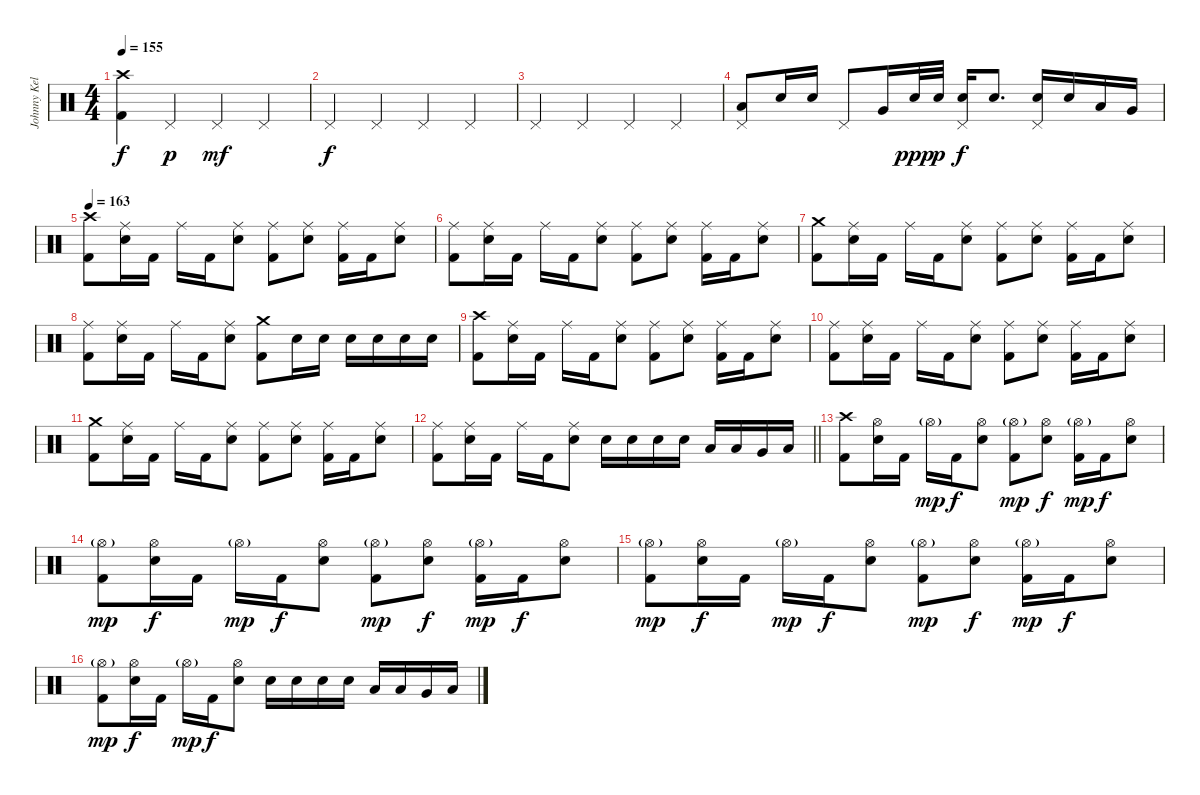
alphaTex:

\track ("Johnny Kelly" "Johnny Kel") {instrument percussion}
\staff {score}
\articulation defaults
\ts (4 4)
\section ("" "")
\tempo 155
\clef neutral
\ks c
("Crash high (hit)" "Kick (hit) 2").4{dy f} "Pedal Hi-Hat (hit)".4{dy p} "Pedal Hi-Hat (hit)".4{dy mf} "Pedal Hi-Hat (hit)".4 |
"Pedal Hi-Hat (hit)".4{dy f} "Pedal Hi-Hat (hit)".4 "Pedal Hi-Hat (hit)".4 "Pedal Hi-Hat (hit)".4 |
"Pedal Hi-Hat (hit)".4 "Pedal Hi-Hat (hit)".4 "Pedal Hi-Hat (hit)".4 "Pedal Hi-Hat (hit)".4 |
("Pedal Hi-Hat (hit)" "Low Tom (hit)").8 "Electric Snare (hit)".16 "Electric Snare (hit)".16 "Pedal Hi-Hat (hit)".8 "Very Low Tom (hit)".16 "Electric Snare (hit)".32{dy ppp} "Electric Snare (hit)".32{dy p} ("Pedal Hi-Hat (hit)" "Electric Snare (hit)").16{dy f} "Electric Snare (hit)".8{d} ("Pedal Hi-Hat (hit)" "Electric Snare (hit)").16 "Electric Snare (hit)".16 "Low Tom (hit)".16 "Very Low Tom (hit)".16 |
\tempo 163
("Crash high (hit)" "Kick (hit) 2").8 ("Ride (middle)" "Electric Snare (hit)").16 "Kick (hit) 2".16 "Ride (middle)".16 "Kick (hit) 2".16 ("Ride (middle)" "Electric Snare (hit)").8 ("Ride (middle)" "Kick (hit) 2").8 ("Ride (middle)" "Electric Snare (hit)").8 ("Ride (middle)" "Kick (hit) 2").16 "Kick (hit) 2".16 ("Ride (middle)" "Electric Snare (hit)").8 |
("Ride (middle)" "Kick (hit) 2").8 ("Ride (middle)" "Electric Snare (hit)").16 "Kick (hit) 2".16 "Ride (middle)".16 "Kick (hit) 2".16 ("Ride (middle)" "Electric Snare (hit)").8 ("Ride (middle)" "Kick (hit) 2").8 ("Ride (middle)" "Electric Snare (hit)").8 ("Ride (middle)" "Kick (hit) 2").16 "Kick (hit) 2".16 ("Ride (middle)" "Electric Snare (hit)").8 |
("Crash medium (hit)" "Kick (hit) 2").8 ("Ride (middle)" "Electric Snare (hit)").16 "Kick (hit) 2".16 "Ride (middle)".16 "Kick (hit) 2".16 ("Ride (middle)" "Electric Snare (hit)").8 ("Ride (middle)" "Kick (hit) 2").8 ("Ride (middle)" "Electric Snare (hit)").8 ("Ride (middle)" "Kick (hit) 2").16 "Kick (hit) 2".16 ("Ride (middle)" "Electric Snare (hit)").8 |
("Ride (middle)" "Kick (hit) 2").8 ("Ride (middle)" "Electric Snare (hit)").16 "Kick (hit) 2".16 "Ride (middle)".16 "Kick (hit) 2".16 ("Ride (middle)" "Electric Snare (hit)").8 ("Crash medium (hit)" "Kick (hit) 2").8 "Electric Snare (hit)".16 "Electric Snare (hit)".16 "Electric Snare (hit)".16 "Electric Snare (hit)".16 "Electric Snare (hit)".16 "Electric Snare (hit)".16 |
("Crash high (hit)" "Kick (hit) 2").8 ("Ride (middle)" "Electric Snare (hit)").16 "Kick (hit) 2".16 "Ride (middle)".16 "Kick (hit) 2".16 ("Ride (middle)" "Electric Snare (hit)").8 ("Ride (middle)" "Kick (hit) 2").8 ("Ride (middle)" "Electric Snare (hit)").8 ("Ride (middle)" "Kick (hit) 2").16 "Kick (hit) 2".16 ("Ride (middle)" "Electric Snare (hit)").8 |
("Ride (middle)" "Kick (hit) 2").8 ("Ride (middle)" "Electric Snare (hit)").16 "Kick (hit) 2".16 "Ride (middle)".16 "Kick (hit) 2".16 ("Ride (middle)" "Electric Snare (hit)").8 ("Ride (middle)" "Kick (hit) 2").8 ("Ride (middle)" "Electric Snare (hit)").8 ("Ride (middle)" "Kick (hit) 2").16 "Kick (hit) 2".16 ("Ride (middle)" "Electric Snare (hit)").8 |
("Crash medium (hit)" "Kick (hit) 2").8 ("Ride (middle)" "Electric Snare (hit)").16 "Kick (hit) 2".16 "Ride (middle)".16 "Kick (hit) 2".16 ("Ride (middle)" "Electric Snare (hit)").8 ("Ride (middle)" "Kick (hit) 2").8 ("Ride (middle)" "Electric Snare (hit)").8 ("Ride (middle)" "Kick (hit) 2").16 "Kick (hit) 2".16 ("Ride (middle)" "Electric Snare (hit)").8 |
\barLineRight lightlight
("Ride (middle)" "Kick (hit) 2").8 ("Ride (middle)" "Electric Snare (hit)").16 "Kick (hit) 2".16 "Ride (middle)".16 "Kick (hit) 2".16 ("Ride (middle)" "Electric Snare (hit)").8 "Electric Snare (hit)".16 "Electric Snare (hit)".16 "Electric Snare (hit)".16 "Electric Snare (hit)".16 "Low Tom (hit)".16 "Low Tom (hit)".16 "Very Low Tom (hit)".16 "Low Floor Tom (hit)".16 |
\section ("" "")
("Crash high (hit)" "Kick (hit) 2").8 ("Hi-Hat (open)" "Electric Snare (hit)").16 "Kick (hit) 2".16 "Hi-Hat (open)"{g}.16{dy mp} "Kick (hit) 2".16{dy f} ("Hi-Hat (open)" "Electric Snare (hit)").8 ("Hi-Hat (open)"{g} "Kick (hit) 2").8{dy mp} ("Hi-Hat (open)" "Electric Snare (hit)").8{dy f} ("Hi-Hat (open)"{g} "Kick (hit) 2").16{dy mp} "Kick (hit) 2".16{dy f} ("Hi-Hat (open)" "Electric Snare (hit)").8 |
("Hi-Hat (open)"{g} "Kick (hit) 2").8{dy mp} ("Hi-Hat (open)" "Electric Snare (hit)").16{dy f} "Kick (hit) 2".16 "Hi-Hat (open)"{g}.16{dy mp} "Kick (hit) 2".16{dy f} ("Hi-Hat (open)" "Electric Snare (hit)").8 ("Hi-Hat (open)"{g} "Kick (hit) 2").8{dy mp} ("Hi-Hat (open)" "Electric Snare (hit)").8{dy f} ("Hi-Hat (open)"{g} "Kick (hit) 2").16{dy mp} "Kick (hit) 2".16{dy f} ("Hi-Hat (open)" "Electric Snare (hit)").8 |
("Hi-Hat (open)"{g} "Kick (hit) 2").8{dy mp} ("Hi-Hat (open)" "Electric Snare (hit)").16{dy f} "Kick (hit) 2".16 "Hi-Hat (open)"{g}.16{dy mp} "Kick (hit) 2".16{dy f} ("Hi-Hat (open)" "Electric Snare (hit)").8 ("Hi-Hat (open)"{g} "Kick (hit) 2").8{dy mp} ("Hi-Hat (open)" "Electric Snare (hit)").8{dy f} ("Hi-Hat (open)"{g} "Kick (hit) 2").16{dy mp} "Kick (hit) 2".16{dy f} ("Hi-Hat (open)" "Electric Snare (hit)").8 |
("Hi-Hat (open)"{g} "Kick (hit) 2").8{dy mp} ("Hi-Hat (open)" "Electric Snare (hit)").16{dy f} "Kick (hit) 2".16 "Hi-Hat (open)"{g}.16{dy mp} "Kick (hit) 2".16{dy f} ("Hi-Hat (open)" "Electric Snare (hit)").8 "Electric Snare (hit)".16 "Electric Snare (hit)".16 "Electric Snare (hit)".16 "Electric Snare (hit)".16 "Low Tom (hit)".16 "Low Tom (hit)".16 "Very Low Tom (hit)".16 "Low Floor Tom (hit)".16
